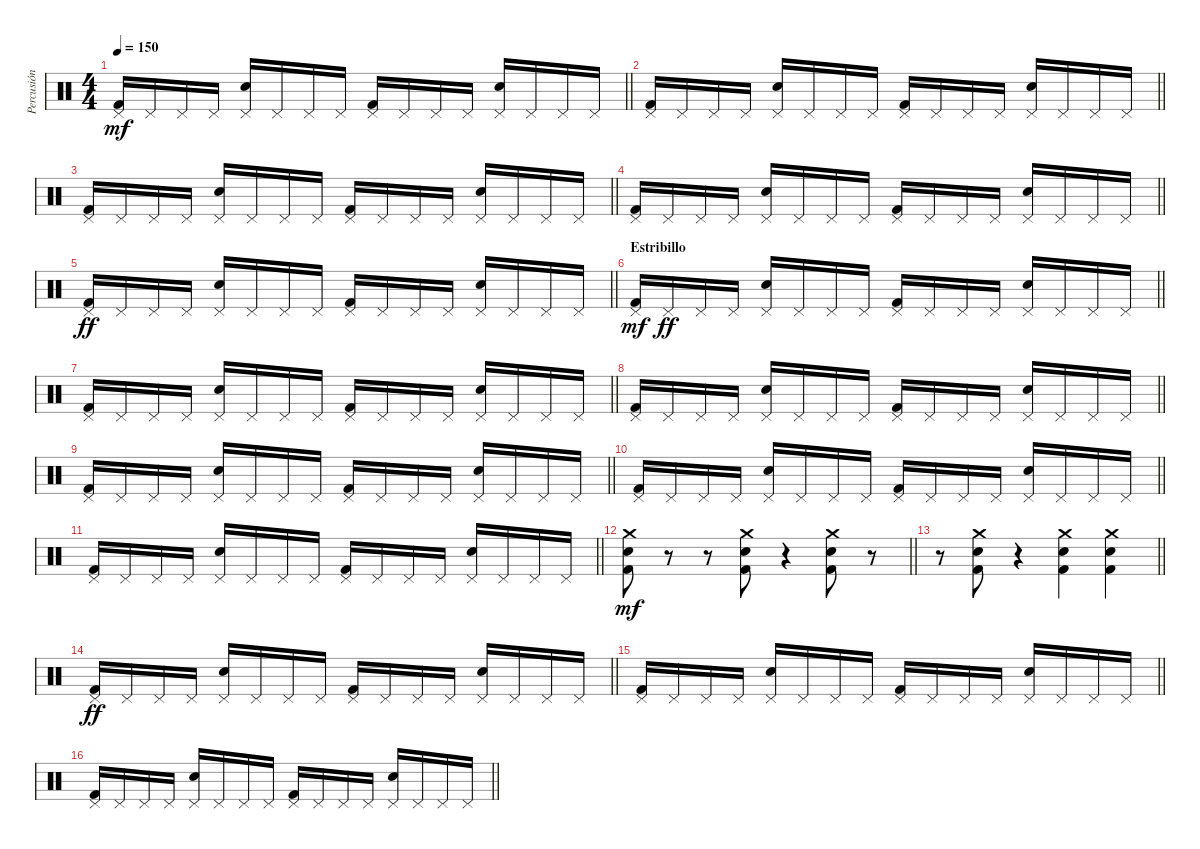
\track ("Percusión" "Percusión") {instrument percussion}
\staff {score}
\articulation defaults
\ts (4 4)
\tempo 150
\clef neutral
\barLineRight lightlight
\ks c
("Pedal Hi-Hat (hit)" "Kick (hit) 2").16{dy mf} "Pedal Hi-Hat (hit)".16 "Pedal Hi-Hat (hit)".16 "Pedal Hi-Hat (hit)".16 ("Pedal Hi-Hat (hit)" "Electric Snare (hit)").16 "Pedal Hi-Hat (hit)".16 "Pedal Hi-Hat (hit)".16 "Pedal Hi-Hat (hit)".16 ("Pedal Hi-Hat (hit)" "Kick (hit) 2").16 "Pedal Hi-Hat (hit)".16 "Pedal Hi-Hat (hit)".16 "Pedal Hi-Hat (hit)".16 ("Pedal Hi-Hat (hit)" "Electric Snare (hit)").16 "Pedal Hi-Hat (hit)".16 "Pedal Hi-Hat (hit)".16 "Pedal Hi-Hat (hit)".16 |
\barLineRight lightlight
("Pedal Hi-Hat (hit)" "Kick (hit) 2").16 "Pedal Hi-Hat (hit)".16 "Pedal Hi-Hat (hit)".16 "Pedal Hi-Hat (hit)".16 ("Pedal Hi-Hat (hit)" "Electric Snare (hit)").16 "Pedal Hi-Hat (hit)".16 "Pedal Hi-Hat (hit)".16 "Pedal Hi-Hat (hit)".16 ("Pedal Hi-Hat (hit)" "Kick (hit) 2").16 "Pedal Hi-Hat (hit)".16 "Pedal Hi-Hat (hit)".16 "Pedal Hi-Hat (hit)".16 ("Pedal Hi-Hat (hit)" "Electric Snare (hit)").16 "Pedal Hi-Hat (hit)".16 "Pedal Hi-Hat (hit)".16 "Pedal Hi-Hat (hit)".16 |
\barLineRight lightlight
("Pedal Hi-Hat (hit)" "Kick (hit) 2").16 "Pedal Hi-Hat (hit)".16 "Pedal Hi-Hat (hit)".16 "Pedal Hi-Hat (hit)".16 ("Pedal Hi-Hat (hit)" "Electric Snare (hit)").16 "Pedal Hi-Hat (hit)".16 "Pedal Hi-Hat (hit)".16 "Pedal Hi-Hat (hit)".16 ("Pedal Hi-Hat (hit)" "Kick (hit) 2").16 "Pedal Hi-Hat (hit)".16 "Pedal Hi-Hat (hit)".16 "Pedal Hi-Hat (hit)".16 ("Pedal Hi-Hat (hit)" "Electric Snare (hit)").16 "Pedal Hi-Hat (hit)".16 "Pedal Hi-Hat (hit)".16 "Pedal Hi-Hat (hit)".16 |
\barLineRight lightlight
("Pedal Hi-Hat (hit)" "Kick (hit) 2").16 "Pedal Hi-Hat (hit)".16 "Pedal Hi-Hat (hit)".16 "Pedal Hi-Hat (hit)".16 ("Pedal Hi-Hat (hit)" "Electric Snare (hit)").16 "Pedal Hi-Hat (hit)".16 "Pedal Hi-Hat (hit)".16 "Pedal Hi-Hat (hit)".16 ("Pedal Hi-Hat (hit)" "Kick (hit) 2").16 "Pedal Hi-Hat (hit)".16 "Pedal Hi-Hat (hit)".16 "Pedal Hi-Hat (hit)".16 ("Pedal Hi-Hat (hit)" "Electric Snare (hit)").16 "Pedal Hi-Hat (hit)".16 "Pedal Hi-Hat (hit)".16 "Pedal Hi-Hat (hit)".16 |
\section ("" "")
\barLineRight lightlight
("Pedal Hi-Hat (hit)" "Kick (hit) 2").16{dy ff} "Pedal Hi-Hat (hit)".16 "Pedal Hi-Hat (hit)".16 "Pedal Hi-Hat (hit)".16 ("Pedal Hi-Hat (hit)" "Electric Snare (hit)").16 "Pedal Hi-Hat (hit)".16 "Pedal Hi-Hat (hit)".16 "Pedal Hi-Hat (hit)".16 ("Pedal Hi-Hat (hit)" "Kick (hit) 2").16 "Pedal Hi-Hat (hit)".16 "Pedal Hi-Hat (hit)".16 "Pedal Hi-Hat (hit)".16 ("Pedal Hi-Hat (hit)" "Electric Snare (hit)").16 "Pedal Hi-Hat (hit)".16 "Pedal Hi-Hat (hit)".16 "Pedal Hi-Hat (hit)".16 |
\section ("" "Estribillo")
\barLineRight lightlight
("Pedal Hi-Hat (hit)" "Kick (hit) 2").16{dy mf} "Pedal Hi-Hat (hit)".16{dy ff} "Pedal Hi-Hat (hit)".16 "Pedal Hi-Hat (hit)".16 ("Pedal Hi-Hat (hit)" "Electric Snare (hit)").16 "Pedal Hi-Hat (hit)".16 "Pedal Hi-Hat (hit)".16 "Pedal Hi-Hat (hit)".16 ("Pedal Hi-Hat (hit)" "Kick (hit) 2").16 "Pedal Hi-Hat (hit)".16 "Pedal Hi-Hat (hit)".16 "Pedal Hi-Hat (hit)".16 ("Pedal Hi-Hat (hit)" "Electric Snare (hit)").16 "Pedal Hi-Hat (hit)".16 "Pedal Hi-Hat (hit)".16 "Pedal Hi-Hat (hit)".16 |
\barLineRight lightlight
("Pedal Hi-Hat (hit)" "Kick (hit) 2").16 "Pedal Hi-Hat (hit)".16 "Pedal Hi-Hat (hit)".16 "Pedal Hi-Hat (hit)".16 ("Pedal Hi-Hat (hit)" "Electric Snare (hit)").16 "Pedal Hi-Hat (hit)".16 "Pedal Hi-Hat (hit)".16 "Pedal Hi-Hat (hit)".16 ("Pedal Hi-Hat (hit)" "Kick (hit) 2").16 "Pedal Hi-Hat (hit)".16 "Pedal Hi-Hat (hit)".16 "Pedal Hi-Hat (hit)".16 ("Pedal Hi-Hat (hit)" "Electric Snare (hit)").16 "Pedal Hi-Hat (hit)".16 "Pedal Hi-Hat (hit)".16 "Pedal Hi-Hat (hit)".16 |
\barLineRight lightlight
("Pedal Hi-Hat (hit)" "Kick (hit) 2").16 "Pedal Hi-Hat (hit)".16 "Pedal Hi-Hat (hit)".16 "Pedal Hi-Hat (hit)".16 ("Pedal Hi-Hat (hit)" "Electric Snare (hit)").16 "Pedal Hi-Hat (hit)".16 "Pedal Hi-Hat (hit)".16 "Pedal Hi-Hat (hit)".16 ("Pedal Hi-Hat (hit)" "Kick (hit) 2").16 "Pedal Hi-Hat (hit)".16 "Pedal Hi-Hat (hit)".16 "Pedal Hi-Hat (hit)".16 ("Pedal Hi-Hat (hit)" "Electric Snare (hit)").16 "Pedal Hi-Hat (hit)".16 "Pedal Hi-Hat (hit)".16 "Pedal Hi-Hat (hit)".16 |
\barLineRight lightlight
("Pedal Hi-Hat (hit)" "Kick (hit) 2").16 "Pedal Hi-Hat (hit)".16 "Pedal Hi-Hat (hit)".16 "Pedal Hi-Hat (hit)".16 ("Pedal Hi-Hat (hit)" "Electric Snare (hit)").16 "Pedal Hi-Hat (hit)".16 "Pedal Hi-Hat (hit)".16 "Pedal Hi-Hat (hit)".16 ("Pedal Hi-Hat (hit)" "Kick (hit) 2").16 "Pedal Hi-Hat (hit)".16 "Pedal Hi-Hat (hit)".16 "Pedal Hi-Hat (hit)".16 ("Pedal Hi-Hat (hit)" "Electric Snare (hit)").16 "Pedal Hi-Hat (hit)".16 "Pedal Hi-Hat (hit)".16 "Pedal Hi-Hat (hit)".16 |
\barLineRight lightlight
("Pedal Hi-Hat (hit)" "Kick (hit) 2").16 "Pedal Hi-Hat (hit)".16 "Pedal Hi-Hat (hit)".16 "Pedal Hi-Hat (hit)".16 ("Pedal Hi-Hat (hit)" "Electric Snare (hit)").16 "Pedal Hi-Hat (hit)".16 "Pedal Hi-Hat (hit)".16 "Pedal Hi-Hat (hit)".16 ("Pedal Hi-Hat (hit)" "Kick (hit) 2").16 "Pedal Hi-Hat (hit)".16 "Pedal Hi-Hat (hit)".16 "Pedal Hi-Hat (hit)".16 ("Pedal Hi-Hat (hit)" "Electric Snare (hit)").16 "Pedal Hi-Hat (hit)".16 "Pedal Hi-Hat (hit)".16 "Pedal Hi-Hat (hit)".16 |
\barLineRight lightlight
("Pedal Hi-Hat (hit)" "Kick (hit) 2").16 "Pedal Hi-Hat (hit)".16 "Pedal Hi-Hat (hit)".16 "Pedal Hi-Hat (hit)".16 ("Pedal Hi-Hat (hit)" "Electric Snare (hit)").16 "Pedal Hi-Hat (hit)".16 "Pedal Hi-Hat (hit)".16 "Pedal Hi-Hat (hit)".16 ("Pedal Hi-Hat (hit)" "Kick (hit) 2").16 "Pedal Hi-Hat (hit)".16 "Pedal Hi-Hat (hit)".16 "Pedal Hi-Hat (hit)".16 ("Pedal Hi-Hat (hit)" "Electric Snare (hit)").16 "Pedal Hi-Hat (hit)".16 "Pedal Hi-Hat (hit)".16 "Pedal Hi-Hat (hit)".16 |
\barLineRight lightlight
("Electric Snare (hit)" "Crash medium (hit)" "Kick (hit) 2").8{dy mf} r.8 r.8 ("Electric Snare (hit)" "Crash medium (hit)" "Kick (hit) 2").8 r.4 ("Electric Snare (hit)" "Crash medium (hit)" "Kick (hit) 2").8 r.8 |
\barLineRight lightlight
r.8 ("Electric Snare (hit)" "Crash medium (hit)" "Kick (hit) 2").8 r.4 ("Electric Snare (hit)" "Crash medium (hit)" "Kick (hit) 2").4 ("Electric Snare (hit)" "Crash medium (hit)" "Kick (hit) 2").4 |
\barLineRight lightlight
("Pedal Hi-Hat (hit)" "Kick (hit) 2").16{dy ff} "Pedal Hi-Hat (hit)".16 "Pedal Hi-Hat (hit)".16 "Pedal Hi-Hat (hit)".16 ("Pedal Hi-Hat (hit)" "Electric Snare (hit)").16 "Pedal Hi-Hat (hit)".16 "Pedal Hi-Hat (hit)".16 "Pedal Hi-Hat (hit)".16 ("Pedal Hi-Hat (hit)" "Kick (hit) 2").16 "Pedal Hi-Hat (hit)".16 "Pedal Hi-Hat (hit)".16 "Pedal Hi-Hat (hit)".16 ("Pedal Hi-Hat (hit)" "Electric Snare (hit)").16 "Pedal Hi-Hat (hit)".16 "Pedal Hi-Hat (hit)".16 "Pedal Hi-Hat (hit)".16 |
\barLineRight lightlight
("Pedal Hi-Hat (hit)" "Kick (hit) 2").16 "Pedal Hi-Hat (hit)".16 "Pedal Hi-Hat (hit)".16 "Pedal Hi-Hat (hit)".16 ("Pedal Hi-Hat (hit)" "Electric Snare (hit)").16 "Pedal Hi-Hat (hit)".16 "Pedal Hi-Hat (hit)".16 "Pedal Hi-Hat (hit)".16 ("Pedal Hi-Hat (hit)" "Kick (hit) 2").16 "Pedal Hi-Hat (hit)".16 "Pedal Hi-Hat (hit)".16 "Pedal Hi-Hat (hit)".16 ("Pedal Hi-Hat (hit)" "Electric Snare (hit)").16 "Pedal Hi-Hat (hit)".16 "Pedal Hi-Hat (hit)".16 "Pedal Hi-Hat (hit)".16 |
\barLineRight lightlight
("Pedal Hi-Hat (hit)" "Kick (hit) 2").16 "Pedal Hi-Hat (hit)".16 "Pedal Hi-Hat (hit)".16 "Pedal Hi-Hat (hit)".16 ("Pedal Hi-Hat (hit)" "Electric Snare (hit)").16 "Pedal Hi-Hat (hit)".16 "Pedal Hi-Hat (hit)".16 "Pedal Hi-Hat (hit)".16 ("Pedal Hi-Hat (hit)" "Kick (hit) 2").16 "Pedal Hi-Hat (hit)".16 "Pedal Hi-Hat (hit)".16 "Pedal Hi-Hat (hit)".16 ("Pedal Hi-Hat (hit)" "Electric Snare (hit)").16 "Pedal Hi-Hat (hit)".16 "Pedal Hi-Hat (hit)".16 "Pedal Hi-Hat (hit)".16
